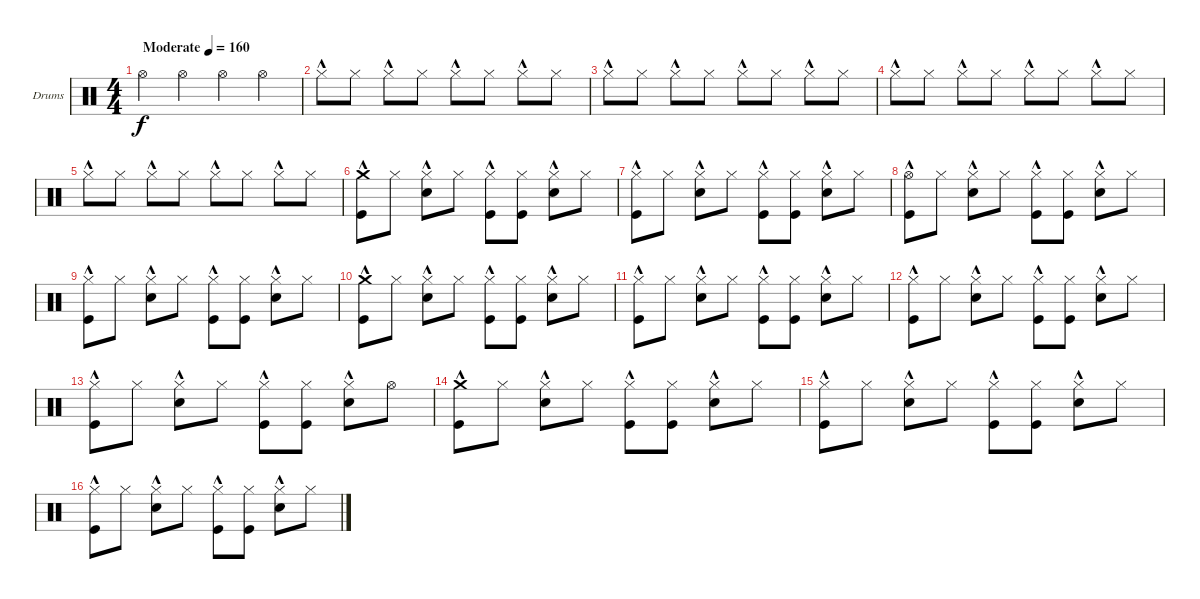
\bracketExtendMode groupsimilarinstruments
\firstSystemTrackNameOrientation horizontal
\otherSystemsTrackNameOrientation horizontal
\track ("Drumkit" "Drums") {instrument percussion}
\staff {score}
\articulation defaults
\ts (4 4)
\beaming (8 2 2 2 2)
\tempo (160 "Moderate")
\clef neutral
\ks c "Hi-Hat (open)".4{dy f} "Hi-Hat (open)".4 "Hi-Hat (open)".4 "Hi-Hat (open)".4
|
"Hi-Hat (closed)"{hac}.8 "Hi-Hat (closed)".8 "Hi-Hat (closed)"{hac}.8 "Hi-Hat (closed)".8 "Hi-Hat (closed)"{hac}.8 "Hi-Hat (closed)".8 "Hi-Hat (closed)"{hac}.8 "Hi-Hat (closed)".8 |
"Hi-Hat (closed)"{hac}.8 "Hi-Hat (closed)".8 "Hi-Hat (closed)"{hac}.8 "Hi-Hat (closed)".8 "Hi-Hat (closed)"{hac}.8 "Hi-Hat (closed)".8 "Hi-Hat (closed)"{hac}.8 "Hi-Hat (closed)".8 |
"Hi-Hat (closed)"{hac}.8 "Hi-Hat (closed)".8 "Hi-Hat (closed)"{hac}.8 "Hi-Hat (closed)".8 "Hi-Hat (closed)"{hac}.8 "Hi-Hat (closed)".8 "Hi-Hat (closed)"{hac}.8 "Hi-Hat (closed)".8 |
"Hi-Hat (closed)"{hac}.8 "Hi-Hat (closed)".8 "Hi-Hat (closed)"{hac}.8 "Hi-Hat (closed)".8 "Hi-Hat (closed)"{hac}.8 "Hi-Hat (closed)".8 "Hi-Hat (closed)"{hac}.8 "Hi-Hat (closed)".8 |
("Kick (hit)" "Crash medium (hit)"{hac}).8 "Hi-Hat (closed)".8 ("Snare (hit) 2" "Hi-Hat (closed)"{hac}).8 "Hi-Hat (closed)".8 ("Kick (hit)" "Hi-Hat (closed)"{hac}).8 ("Kick (hit)" "Hi-Hat (closed)").8 ("Snare (hit) 2" "Hi-Hat (closed)"{hac}).8 "Hi-Hat (closed)".8 |
("Kick (hit)" "Hi-Hat (closed)"{hac}).8 "Hi-Hat (closed)".8 ("Snare (hit) 2" "Hi-Hat (closed)"{hac}).8 "Hi-Hat (closed)".8 ("Kick (hit)" "Hi-Hat (closed)"{hac}).8 ("Kick (hit)" "Hi-Hat (closed)").8 ("Snare (hit) 2" "Hi-Hat (closed)"{hac}).8 "Hi-Hat (closed)".8 |
("Kick (hit)" "Hi-Hat (open)"{hac}).8 "Hi-Hat (closed)".8 ("Snare (hit) 2" "Hi-Hat (closed)"{hac}).8 "Hi-Hat (closed)".8 ("Kick (hit)" "Hi-Hat (closed)"{hac}).8 ("Kick (hit)" "Hi-Hat (closed)").8 ("Snare (hit) 2" "Hi-Hat (closed)"{hac}).8 "Hi-Hat (closed)".8 |
("Kick (hit)" "Hi-Hat (closed)"{hac}).8 "Hi-Hat (closed)".8 ("Snare (hit) 2" "Hi-Hat (closed)"{hac}).8 "Hi-Hat (closed)".8 ("Kick (hit)" "Hi-Hat (closed)"{hac}).8 ("Kick (hit)" "Hi-Hat (closed)").8 ("Snare (hit) 2" "Hi-Hat (closed)"{hac}).8 "Hi-Hat (closed)".8 |
("Kick (hit)" "Crash medium (hit)"{hac}).8 "Hi-Hat (closed)".8 ("Snare (hit) 2" "Hi-Hat (closed)"{hac}).8 "Hi-Hat (closed)".8 ("Kick (hit)" "Hi-Hat (closed)"{hac}).8 ("Kick (hit)" "Hi-Hat (closed)").8 ("Snare (hit) 2" "Hi-Hat (closed)"{hac}).8 "Hi-Hat (closed)".8 |
("Kick (hit)" "Hi-Hat (closed)"{hac}).8 "Hi-Hat (closed)".8 ("Snare (hit) 2" "Hi-Hat (closed)"{hac}).8 "Hi-Hat (closed)".8 ("Kick (hit)" "Hi-Hat (closed)"{hac}).8 ("Kick (hit)" "Hi-Hat (closed)").8 ("Snare (hit) 2" "Hi-Hat (closed)"{hac}).8 "Hi-Hat (closed)".8 |
("Kick (hit)" "Hi-Hat (closed)"{hac}).8 "Hi-Hat (closed)".8 ("Snare (hit) 2" "Hi-Hat (closed)"{hac}).8 "Hi-Hat (closed)".8 ("Kick (hit)" "Hi-Hat (closed)"{hac}).8 ("Kick (hit)" "Hi-Hat (closed)").8 ("Snare (hit) 2" "Hi-Hat (closed)"{hac}).8 "Hi-Hat (closed)".8 |
("Kick (hit)" "Hi-Hat (closed)"{hac}).8 "Hi-Hat (closed)".8 ("Snare (hit) 2" "Hi-Hat (closed)"{hac}).8 "Hi-Hat (closed)".8 ("Kick (hit)" "Hi-Hat (closed)"{hac}).8 ("Kick (hit)" "Hi-Hat (closed)").8 ("Snare (hit) 2" "Hi-Hat (closed)"{hac}).8 "Hi-Hat (open)".8 |
("Kick (hit)" "Crash medium (hit)"{hac}).8 "Hi-Hat (closed)".8 ("Snare (hit) 2" "Hi-Hat (closed)"{hac}).8 "Hi-Hat (closed)".8 ("Kick (hit)" "Hi-Hat (closed)"{hac}).8 ("Kick (hit)" "Hi-Hat (closed)").8 ("Snare (hit) 2" "Hi-Hat (closed)"{hac}).8 "Hi-Hat (closed)".8 |
("Kick (hit)" "Hi-Hat (closed)"{hac}).8 "Hi-Hat (closed)".8 ("Snare (hit) 2" "Hi-Hat (closed)"{hac}).8 "Hi-Hat (closed)".8 ("Kick (hit)" "Hi-Hat (closed)"{hac}).8 ("Kick (hit)" "Hi-Hat (closed)").8 ("Snare (hit) 2" "Hi-Hat (closed)"{hac}).8 "Hi-Hat (closed)".8 |
("Kick (hit)" "Hi-Hat (closed)"{hac}).8 "Hi-Hat (closed)".8 ("Snare (hit) 2" "Hi-Hat (closed)"{hac}).8 "Hi-Hat (closed)".8 ("Kick (hit)" "Hi-Hat (closed)"{hac}).8 ("Kick (hit)" "Hi-Hat (closed)").8 ("Snare (hit) 2" "Hi-Hat (closed)"{hac}).8 "Hi-Hat (closed)".8
